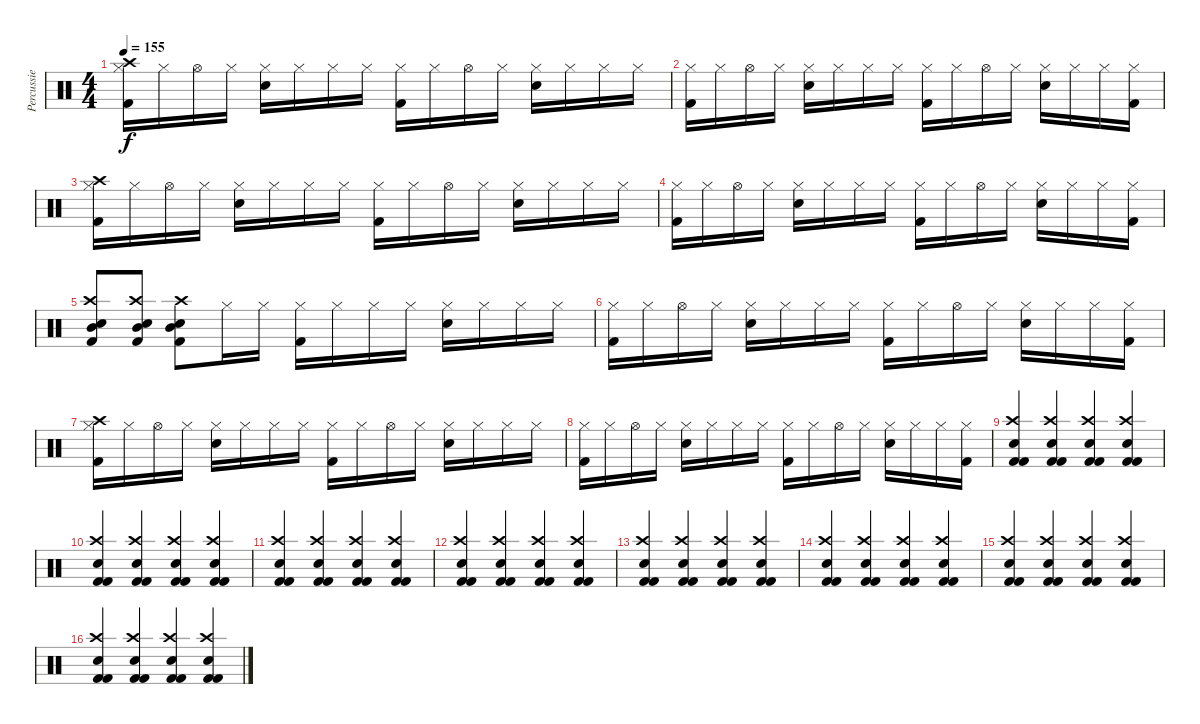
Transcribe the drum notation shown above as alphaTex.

\track ("Percussie" "Percussie") {instrument percussion}
\staff {score}
\articulation defaults
\ts (4 4)
\tempo 155
\clef neutral
\ks c
("Kick (hit) 2" "Hi-Hat (closed)" "Crash high (hit)").16{dy f} "Hi-Hat (closed)".16 "Hi-Hat (open)".16 "Hi-Hat (closed)".16 ("Electric Snare (hit)" "Hi-Hat (closed)").16 "Hi-Hat (closed)".16 "Hi-Hat (closed)".16 "Hi-Hat (closed)".16 ("Kick (hit) 2" "Hi-Hat (closed)").16 "Hi-Hat (closed)".16 "Hi-Hat (open)".16 "Hi-Hat (closed)".16 ("Electric Snare (hit)" "Hi-Hat (closed)").16 "Hi-Hat (closed)".16 "Hi-Hat (closed)".16 "Hi-Hat (closed)".16 |
("Kick (hit) 2" "Hi-Hat (closed)").16 "Hi-Hat (closed)".16 "Hi-Hat (open)".16 "Hi-Hat (closed)".16 ("Electric Snare (hit)" "Hi-Hat (closed)").16 "Hi-Hat (closed)".16 "Hi-Hat (closed)".16 "Hi-Hat (closed)".16 ("Kick (hit) 2" "Hi-Hat (closed)").16 "Hi-Hat (closed)".16 "Hi-Hat (open)".16 "Hi-Hat (closed)".16 ("Electric Snare (hit)" "Hi-Hat (closed)").16 "Hi-Hat (closed)".16 "Hi-Hat (closed)".16 ("Kick (hit) 2" "Hi-Hat (closed)").16 |
("Kick (hit) 2" "Hi-Hat (closed)" "Crash high (hit)").16 "Hi-Hat (closed)".16 "Hi-Hat (open)".16 "Hi-Hat (closed)".16 ("Electric Snare (hit)" "Hi-Hat (closed)").16 "Hi-Hat (closed)".16 "Hi-Hat (closed)".16 "Hi-Hat (closed)".16 ("Kick (hit) 2" "Hi-Hat (closed)").16 "Hi-Hat (closed)".16 "Hi-Hat (open)".16 "Hi-Hat (closed)".16 ("Electric Snare (hit)" "Hi-Hat (closed)").16 "Hi-Hat (closed)".16 "Hi-Hat (closed)".16 "Hi-Hat (closed)".16 |
("Kick (hit) 2" "Hi-Hat (closed)").16 "Hi-Hat (closed)".16 "Hi-Hat (open)".16 "Hi-Hat (closed)".16 ("Electric Snare (hit)" "Hi-Hat (closed)").16 "Hi-Hat (closed)".16 "Hi-Hat (closed)".16 "Hi-Hat (closed)".16 ("Kick (hit) 2" "Hi-Hat (closed)").16 "Hi-Hat (closed)".16 "Hi-Hat (open)".16 "Hi-Hat (closed)".16 ("Electric Snare (hit)" "Hi-Hat (closed)").16 "Hi-Hat (closed)".16 "Hi-Hat (closed)".16 ("Kick (hit) 2" "Hi-Hat (closed)").16 |
("Kick (hit) 2" "Electric Snare (hit)" "Mid Tom (hit)" "Crash high (hit)").8 ("Kick (hit) 2" "Electric Snare (hit)" "Mid Tom (hit)" "Crash high (hit)").8 ("Kick (hit) 2" "Electric Snare (hit)" "Mid Tom (hit)" "Crash high (hit)").8 "Hi-Hat (closed)".16 "Hi-Hat (closed)".16 ("Kick (hit) 2" "Hi-Hat (closed)").16 "Hi-Hat (closed)".16 "Hi-Hat (closed)".16 "Hi-Hat (closed)".16 ("Electric Snare (hit)" "Hi-Hat (closed)").16 "Hi-Hat (closed)".16 "Hi-Hat (closed)".16 "Hi-Hat (closed)".16 |
("Kick (hit) 2" "Hi-Hat (closed)").16 "Hi-Hat (closed)".16 "Hi-Hat (open)".16 "Hi-Hat (closed)".16 ("Electric Snare (hit)" "Hi-Hat (closed)").16 "Hi-Hat (closed)".16 "Hi-Hat (closed)".16 "Hi-Hat (closed)".16 ("Kick (hit) 2" "Hi-Hat (closed)").16 "Hi-Hat (closed)".16 "Hi-Hat (open)".16 "Hi-Hat (closed)".16 ("Electric Snare (hit)" "Hi-Hat (closed)").16 "Hi-Hat (closed)".16 "Hi-Hat (closed)".16 ("Kick (hit) 2" "Hi-Hat (closed)").16 |
("Kick (hit) 2" "Hi-Hat (closed)" "Crash high (hit)").16 "Hi-Hat (closed)".16 "Hi-Hat (open)".16 "Hi-Hat (closed)".16 ("Electric Snare (hit)" "Hi-Hat (closed)").16 "Hi-Hat (closed)".16 "Hi-Hat (closed)".16 "Hi-Hat (closed)".16 ("Kick (hit) 2" "Hi-Hat (closed)").16 "Hi-Hat (closed)".16 "Hi-Hat (open)".16 "Hi-Hat (closed)".16 ("Electric Snare (hit)" "Hi-Hat (closed)").16 "Hi-Hat (closed)".16 "Hi-Hat (closed)".16 "Hi-Hat (closed)".16 |
("Kick (hit) 2" "Hi-Hat (closed)").16 "Hi-Hat (closed)".16 "Hi-Hat (open)".16 "Hi-Hat (closed)".16 ("Electric Snare (hit)" "Hi-Hat (closed)").16 "Hi-Hat (closed)".16 "Hi-Hat (closed)".16 "Hi-Hat (closed)".16 ("Kick (hit) 2" "Hi-Hat (closed)").16 "Hi-Hat (closed)".16 "Hi-Hat (open)".16 "Hi-Hat (closed)".16 ("Electric Snare (hit)" "Hi-Hat (closed)").16 "Hi-Hat (closed)".16 "Hi-Hat (closed)".16 ("Kick (hit) 2" "Hi-Hat (closed)").16 |
("Kick (hit) 2" "Electric Snare (hit)" "Crash high (hit)" "Kick (hit) 2").4 ("Kick (hit) 2" "Electric Snare (hit)" "Crash high (hit)" "Kick (hit) 2").4 ("Kick (hit) 2" "Electric Snare (hit)" "Crash high (hit)" "Kick (hit) 2").4 ("Kick (hit) 2" "Electric Snare (hit)" "Crash high (hit)" "Kick (hit) 2").4 |
("Kick (hit) 2" "Electric Snare (hit)" "Crash high (hit)" "Kick (hit) 2").4 ("Kick (hit) 2" "Electric Snare (hit)" "Crash high (hit)" "Kick (hit) 2").4 ("Kick (hit) 2" "Electric Snare (hit)" "Crash high (hit)" "Kick (hit) 2").4 ("Kick (hit) 2" "Electric Snare (hit)" "Crash high (hit)" "Kick (hit) 2").4 |
("Kick (hit) 2" "Electric Snare (hit)" "Crash high (hit)" "Kick (hit) 2").4 ("Kick (hit) 2" "Electric Snare (hit)" "Crash high (hit)" "Kick (hit) 2").4 ("Kick (hit) 2" "Electric Snare (hit)" "Crash high (hit)" "Kick (hit) 2").4 ("Kick (hit) 2" "Electric Snare (hit)" "Crash high (hit)" "Kick (hit) 2").4 |
("Kick (hit) 2" "Electric Snare (hit)" "Crash high (hit)" "Kick (hit) 2").4 ("Kick (hit) 2" "Electric Snare (hit)" "Crash high (hit)" "Kick (hit) 2").4 ("Kick (hit) 2" "Electric Snare (hit)" "Crash high (hit)" "Kick (hit) 2").4 ("Kick (hit) 2" "Electric Snare (hit)" "Crash high (hit)" "Kick (hit) 2").4 |
("Kick (hit) 2" "Electric Snare (hit)" "Crash high (hit)" "Kick (hit) 2").4 ("Kick (hit) 2" "Electric Snare (hit)" "Crash high (hit)" "Kick (hit) 2").4 ("Kick (hit) 2" "Electric Snare (hit)" "Crash high (hit)" "Kick (hit) 2").4 ("Kick (hit) 2" "Electric Snare (hit)" "Crash high (hit)" "Kick (hit) 2").4 |
("Kick (hit) 2" "Electric Snare (hit)" "Crash high (hit)" "Kick (hit) 2").4 ("Kick (hit) 2" "Electric Snare (hit)" "Crash high (hit)" "Kick (hit) 2").4 ("Kick (hit) 2" "Electric Snare (hit)" "Crash high (hit)" "Kick (hit) 2").4 ("Kick (hit) 2" "Electric Snare (hit)" "Crash high (hit)" "Kick (hit) 2").4 |
("Kick (hit) 2" "Electric Snare (hit)" "Crash high (hit)" "Kick (hit) 2").4 ("Kick (hit) 2" "Electric Snare (hit)" "Crash high (hit)" "Kick (hit) 2").4 ("Kick (hit) 2" "Electric Snare (hit)" "Crash high (hit)" "Kick (hit) 2").4 ("Kick (hit) 2" "Electric Snare (hit)" "Crash high (hit)" "Kick (hit) 2").4 |
("Kick (hit) 2" "Electric Snare (hit)" "Crash high (hit)" "Kick (hit) 2").4 ("Kick (hit) 2" "Electric Snare (hit)" "Crash high (hit)" "Kick (hit) 2").4 ("Kick (hit) 2" "Electric Snare (hit)" "Crash high (hit)" "Kick (hit) 2").4 ("Kick (hit) 2" "Electric Snare (hit)" "Crash high (hit)" "Kick (hit) 2").4
